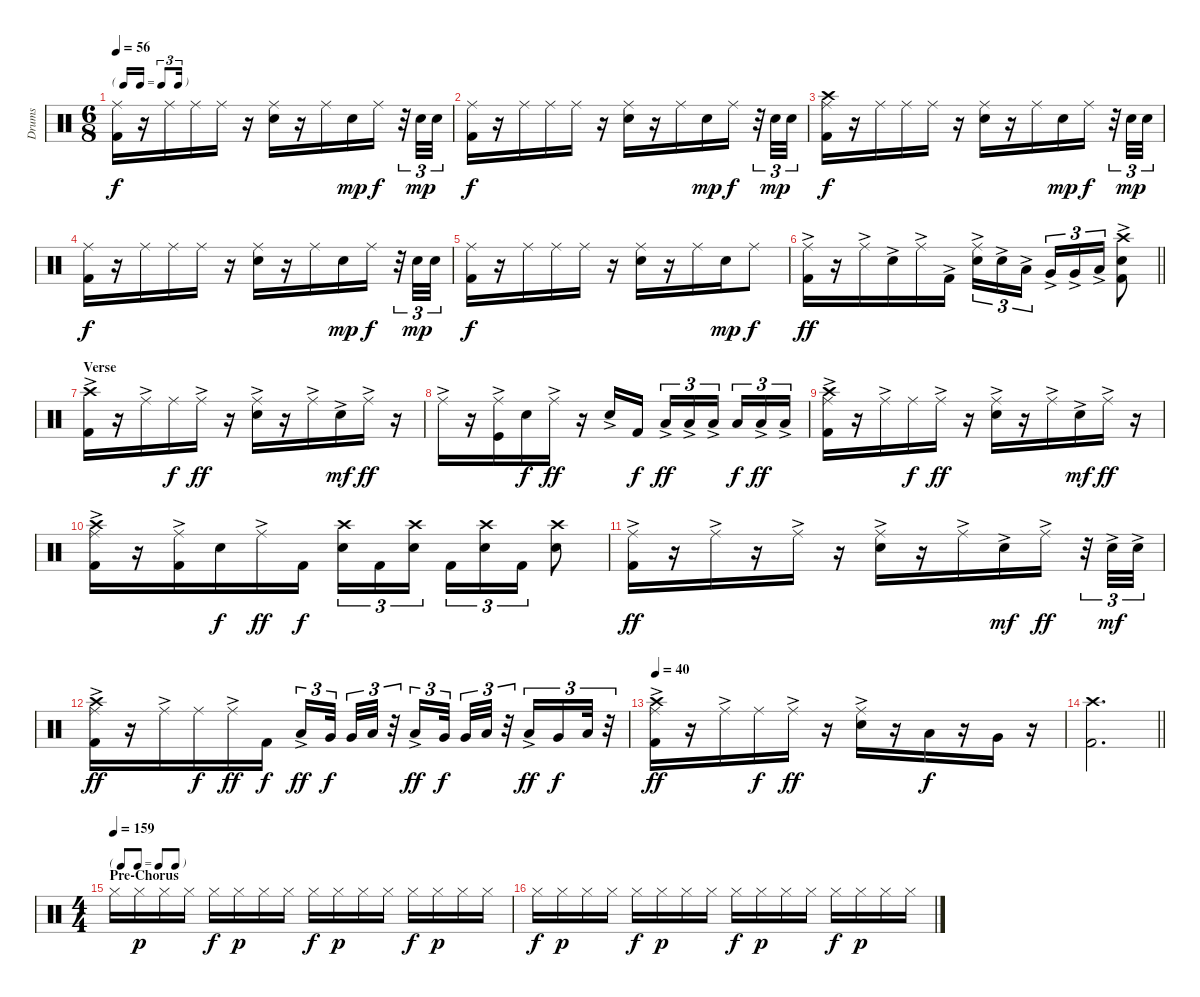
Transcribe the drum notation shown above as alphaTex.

\track ("Drums" "Drums") {instrument percussion}
\staff {score}
\articulation defaults
\ts (6 8)
\tf triplet16th
\tempo 56
\clef neutral
\ks c
("Ride (middle)" "Kick (hit) 2").16{dy f} r.16 "Ride (middle)".16 "Ride (middle)".16 "Ride (middle)".16 r.16 ("Ride (middle)" "Electric Snare (hit)").16 r.16 "Ride (middle)".16 "Electric Snare (hit)".16{dy mp} "Ride (middle)".16{dy f} r.32{tu (3 2)} "Electric Snare (hit)".32{tu (3 2) dy mp} "Electric Snare (hit)".32{tu (3 2)} |
("Ride (middle)" "Kick (hit) 2").16{dy f} r.16 "Ride (middle)".16 "Ride (middle)".16 "Ride (middle)".16 r.16 ("Ride (middle)" "Electric Snare (hit)").16 r.16 "Ride (middle)".16 "Electric Snare (hit)".16{dy mp} "Ride (middle)".16{dy f} r.32{tu (3 2)} "Electric Snare (hit)".32{tu (3 2) dy mp} "Electric Snare (hit)".32{tu (3 2)} |
("Ride (middle)" "Crash high (hit)" "Kick (hit) 2").16{dy f} r.16 "Ride (middle)".16 "Ride (middle)".16 "Ride (middle)".16 r.16 ("Ride (middle)" "Electric Snare (hit)").16 r.16 "Ride (middle)".16 "Electric Snare (hit)".16{dy mp} "Ride (middle)".16{dy f} r.32{tu (3 2)} "Electric Snare (hit)".32{tu (3 2) dy mp} "Electric Snare (hit)".32{tu (3 2)} |
("Ride (middle)" "Kick (hit) 2").16{dy f} r.16 "Ride (middle)".16 "Ride (middle)".16 "Ride (middle)".16 r.16 ("Ride (middle)" "Electric Snare (hit)").16 r.16 "Ride (middle)".16 "Electric Snare (hit)".16{dy mp} "Ride (middle)".16{dy f} r.32{tu (3 2)} "Electric Snare (hit)".32{tu (3 2) dy mp} "Electric Snare (hit)".32{tu (3 2)} |
("Ride (middle)" "Kick (hit) 2").16{dy f} r.16 "Ride (middle)".16 "Ride (middle)".16 "Ride (middle)".16 r.16 ("Ride (middle)" "Electric Snare (hit)").16 r.16 "Ride (middle)".16 "Electric Snare (hit)".16{dy mp} "Ride (middle)".8{dy f} |
\barLineRight lightlight
("Ride (middle)"{ac} "Kick (hit) 2"{ac}).16{dy ff} r.16 "Ride (middle)"{ac}.16 "Electric Snare (hit)"{ac}.16 "Ride (middle)"{ac}.16 "Kick (hit) 2"{ac}.16 ("Ride (middle)"{ac} "Electric Snare (hit)"{ac}).16{tu (3 2)} "Electric Snare (hit)"{ac}.16{tu (3 2)} "Low Tom (hit)"{ac}.16{tu (3 2) beam splitsecondary} "Very Low Tom (hit)"{ac}.16{tu (3 2)} "Very Low Tom (hit)"{ac}.16{tu (3 2)} "Low Floor Tom (hit)"{ac}.16{tu (3 2)} ("Crash high (hit)"{ac} "Electric Snare (hit)"{ac} "Kick (hit) 2"{ac}).8 |
\section ("" "Verse")
("Crash high (hit)"{ac} "Kick (hit) 2"{ac}).16 r.16 "Ride (middle)"{ac}.16 "Ride (middle)".16{dy f} "Ride (middle)"{ac}.16{dy ff} r.16 ("Ride (middle)"{ac} "Electric Snare (hit)"{ac}).16 r.16 "Ride (middle)"{ac}.16 "Electric Snare (hit)"{ac}.16{dy mf} "Ride (middle)"{ac}.16{dy ff} r.16 |
"Ride (middle)"{ac}.16 r.16 ("Ride (middle)"{ac} "Kick (hit)").16 "Electric Snare (hit)".16{dy f} "Ride (middle)"{ac}.16{dy ff} r.16 "Electric Snare (hit)"{ac}.16 "Kick (hit) 2".16{dy f beam splitsecondary} "Low Tom (hit)"{ac}.16{tu (3 2) dy ff} "Low Tom (hit)"{ac}.16{tu (3 2)} "Low Floor Tom (hit)"{ac}.16{tu (3 2) beam splitsecondary} "Low Tom (hit)".16{tu (3 2) dy f} "Low Tom (hit)"{ac}.16{tu (3 2) dy ff} "Low Floor Tom (hit)"{ac}.16{tu (3 2)} |
("Ride (middle)"{ac} "Crash high (hit)" "Kick (hit) 2"{ac}).16 r.16 "Ride (middle)"{ac}.16 "Ride (middle)".16{dy f} "Ride (middle)"{ac}.16{dy ff} r.16 ("Ride (middle)"{ac} "Electric Snare (hit)"{ac}).16 r.16 "Ride (middle)"{ac}.16 "Electric Snare (hit)"{ac}.16{dy mf} "Ride (middle)"{ac}.16{dy ff} r.16 |
("Ride (middle)"{ac} "Crash high (hit)" "Kick (hit) 2"{ac}).16 r.16 ("Ride (middle)"{ac} "Kick (hit) 2").16 "Electric Snare (hit)".16{dy f} "Ride (middle)"{ac}.16{dy ff} "Kick (hit) 2".16{dy f} ("Crash high (hit)" "Electric Snare (hit)").16{tu (3 2)} "Kick (hit) 2".16{tu (3 2)} ("Crash high (hit)" "Electric Snare (hit)").16{tu (3 2) beam splitsecondary} "Kick (hit) 2".16{tu (3 2)} ("Crash high (hit)" "Electric Snare (hit)").16{tu (3 2)} "Kick (hit) 2".16{tu (3 2)} ("Crash high (hit)" "Electric Snare (hit)").8 |
("Ride (middle)"{ac} "Kick (hit) 2"{ac}).16{dy ff} r.16 "Ride (middle)"{ac}.16 r.16 "Ride (middle)"{ac}.16 r.16 ("Ride (middle)"{ac} "Electric Snare (hit)"{ac}).16 r.16 "Ride (middle)"{ac}.16 "Electric Snare (hit)"{ac}.16{dy mf} "Ride (middle)"{ac}.16{dy ff} r.32{tu (3 2)} "Electric Snare (hit)"{ac}.32{tu (3 2) dy mf} "Electric Snare (hit)"{ac}.32{tu (3 2)} |
("Ride (middle)"{ac} "Crash high (hit)" "Kick (hit) 2"{ac}).16{dy ff} r.16 "Ride (middle)"{ac}.16 "Ride (middle)".16{dy f} "Ride (middle)"{ac}.16{dy ff} "Kick (hit) 2".16{dy f} "Low Tom (hit)"{ac}.16{tu (3 2) dy ff} "Very Low Tom (hit)".32{tu (3 2) dy f beam splitsecondary} "Very Low Tom (hit)".32{tu (3 2)} "Low Floor Tom (hit)".32{tu (3 2)} r.32{tu (3 2)} "Low Tom (hit)"{ac}.16{tu (3 2) dy ff} "Very Low Tom (hit)".32{tu (3 2) dy f beam splitsecondary} "Very Low Tom (hit)".32{tu (3 2)} "Low Floor Tom (hit)".32{tu (3 2)} r.32{tu (3 2)} "Low Tom (hit)"{ac}.16{tu (3 2) dy ff} "Very Low Tom (hit)".16{tu (3 2) dy f} "Low Floor Tom (hit)".32{tu (3 2)} r.32{tu (3 2)} |
\tempo 40
("Ride (middle)"{ac} "Crash high (hit)" "Kick (hit) 2"{ac}).16{dy ff} r.16 "Ride (middle)"{ac}.16 "Ride (middle)".16{dy f} "Ride (middle)"{ac}.16{dy ff} r.16 ("Ride (middle)"{ac} "Electric Snare (hit)"{ac}).16 r.16 "Low Tom (hit)".16{dy f} r.16 "Very Low Tom (hit)".16 r.16 |
\barLineRight lightlight
("Crash high (hit)" "Kick (hit) 2").2{d} |
\ts (4 4)
\tf none
\section ("" "Pre-Chorus")
\tempo (159)
"Hi-Hat (closed)".16 "Hi-Hat (closed)".16{dy p} "Hi-Hat (closed)".16 "Hi-Hat (closed)".16 "Hi-Hat (closed)".16{dy f} "Hi-Hat (closed)".16{dy p} "Hi-Hat (closed)".16 "Hi-Hat (closed)".16 "Hi-Hat (closed)".16{dy f} "Hi-Hat (closed)".16{dy p} "Hi-Hat (closed)".16 "Hi-Hat (closed)".16 "Hi-Hat (closed)".16{dy f} "Hi-Hat (closed)".16{dy p} "Hi-Hat (closed)".16 "Hi-Hat (closed)".16 |
"Hi-Hat (closed)".16{dy f} "Hi-Hat (closed)".16{dy p} "Hi-Hat (closed)".16 "Hi-Hat (closed)".16 "Hi-Hat (closed)".16{dy f} "Hi-Hat (closed)".16{dy p} "Hi-Hat (closed)".16 "Hi-Hat (closed)".16 "Hi-Hat (closed)".16{dy f} "Hi-Hat (closed)".16{dy p} "Hi-Hat (closed)".16 "Hi-Hat (closed)".16 "Hi-Hat (closed)".16{dy f} "Hi-Hat (closed)".16{dy p} "Hi-Hat (closed)".16 "Hi-Hat (closed)".16
